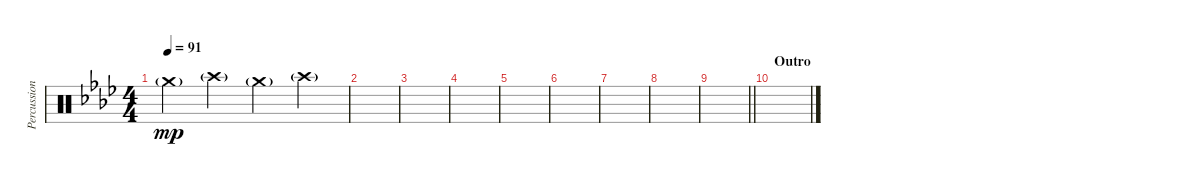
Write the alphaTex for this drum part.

\track ("Percussion" "Percussion") {instrument percussion}
\staff {score}
\articulation defaults
\ts (4 4)
\tempo 91
\clef neutral
\ks fminor "Crash medium (hit)"{g}.4{dy mp} "Crash high (hit)"{g}.4 "Crash medium (hit)"{g}.4 "Crash high (hit)"{g}.4
|
|
|
|
|
|
|
|
\barLineRight lightlight
|
\section ("" "Outro")
